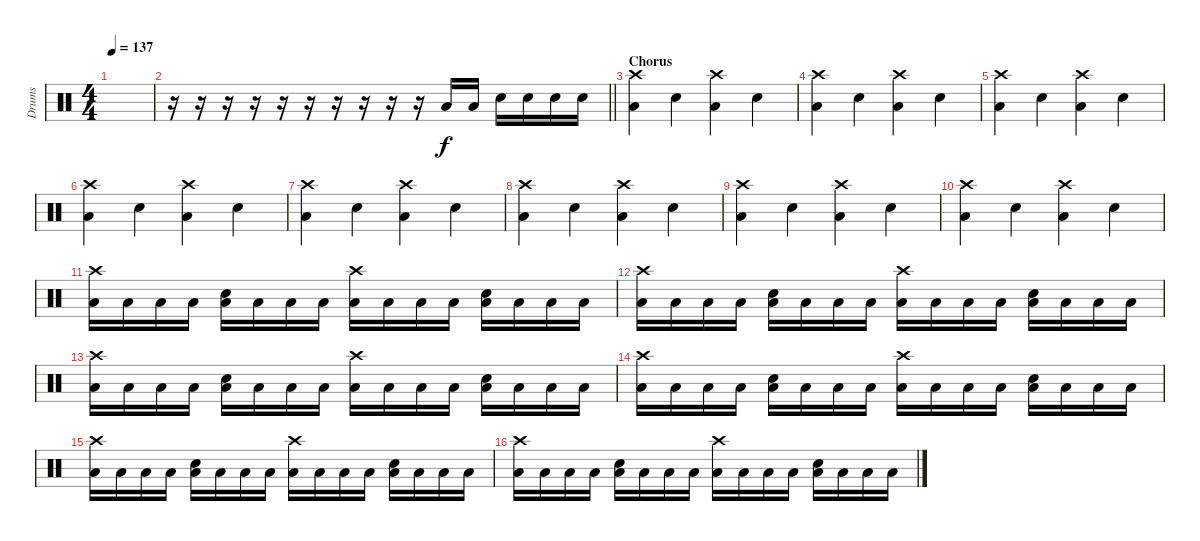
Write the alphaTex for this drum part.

\track ("Drums" "Drums") {instrument percussion}
\staff {score}
\articulation defaults
\ts (4 4)
\tempo 137
\clef neutral
\ks c
|
\barLineRight lightlight
r.16 r.16 r.16 r.16 r.16 r.16 r.16 r.16 r.16 r.16 "Low Floor Tom (hit)".16 "Low Floor Tom (hit)".16 "Electric Snare (hit)".16 "Electric Snare (hit)".16 "Electric Snare (hit)".16 "Electric Snare (hit)".16 |
\section ("" "Chorus")
("Crash high (hit)" "Low Floor Tom (hit)").4 "Electric Snare (hit)".4 ("Crash high (hit)" "Low Floor Tom (hit)").4 "Electric Snare (hit)".4 |
("Crash high (hit)" "Low Floor Tom (hit)").4 "Electric Snare (hit)".4 ("Crash high (hit)" "Low Floor Tom (hit)").4 "Electric Snare (hit)".4 |
("Crash high (hit)" "Low Floor Tom (hit)").4 "Electric Snare (hit)".4 ("Crash high (hit)" "Low Floor Tom (hit)").4 "Electric Snare (hit)".4 |
("Crash high (hit)" "Low Floor Tom (hit)").4 "Electric Snare (hit)".4 ("Crash high (hit)" "Low Floor Tom (hit)").4 "Electric Snare (hit)".4 |
("Crash high (hit)" "Low Floor Tom (hit)").4 "Electric Snare (hit)".4 ("Crash high (hit)" "Low Floor Tom (hit)").4 "Electric Snare (hit)".4 |
("Crash high (hit)" "Low Floor Tom (hit)").4 "Electric Snare (hit)".4 ("Crash high (hit)" "Low Floor Tom (hit)").4 "Electric Snare (hit)".4 |
("Crash high (hit)" "Low Floor Tom (hit)").4 "Electric Snare (hit)".4 ("Crash high (hit)" "Low Floor Tom (hit)").4 "Electric Snare (hit)".4 |
("Crash high (hit)" "Low Floor Tom (hit)").4 "Electric Snare (hit)".4 ("Crash high (hit)" "Low Floor Tom (hit)").4 "Electric Snare (hit)".4 |
("Crash high (hit)" "Low Floor Tom (hit)").16 "Low Floor Tom (hit)".16 "Low Floor Tom (hit)".16 "Low Floor Tom (hit)".16 ("Electric Snare (hit)" "Low Floor Tom (hit)").16 "Low Floor Tom (hit)".16 "Low Floor Tom (hit)".16 "Low Floor Tom (hit)".16 ("Crash high (hit)" "Low Floor Tom (hit)").16 "Low Floor Tom (hit)".16 "Low Floor Tom (hit)".16 "Low Floor Tom (hit)".16 ("Electric Snare (hit)" "Low Floor Tom (hit)").16 "Low Floor Tom (hit)".16 "Low Floor Tom (hit)".16 "Low Floor Tom (hit)".16 |
("Crash high (hit)" "Low Floor Tom (hit)").16 "Low Floor Tom (hit)".16 "Low Floor Tom (hit)".16 "Low Floor Tom (hit)".16 ("Electric Snare (hit)" "Low Floor Tom (hit)").16 "Low Floor Tom (hit)".16 "Low Floor Tom (hit)".16 "Low Floor Tom (hit)".16 ("Crash high (hit)" "Low Floor Tom (hit)").16 "Low Floor Tom (hit)".16 "Low Floor Tom (hit)".16 "Low Floor Tom (hit)".16 ("Electric Snare (hit)" "Low Floor Tom (hit)").16 "Low Floor Tom (hit)".16 "Low Floor Tom (hit)".16 "Low Floor Tom (hit)".16 |
("Crash high (hit)" "Low Floor Tom (hit)").16 "Low Floor Tom (hit)".16 "Low Floor Tom (hit)".16 "Low Floor Tom (hit)".16 ("Electric Snare (hit)" "Low Floor Tom (hit)").16 "Low Floor Tom (hit)".16 "Low Floor Tom (hit)".16 "Low Floor Tom (hit)".16 ("Crash high (hit)" "Low Floor Tom (hit)").16 "Low Floor Tom (hit)".16 "Low Floor Tom (hit)".16 "Low Floor Tom (hit)".16 ("Electric Snare (hit)" "Low Floor Tom (hit)").16 "Low Floor Tom (hit)".16 "Low Floor Tom (hit)".16 "Low Floor Tom (hit)".16 |
("Crash high (hit)" "Low Floor Tom (hit)").16 "Low Floor Tom (hit)".16 "Low Floor Tom (hit)".16 "Low Floor Tom (hit)".16 ("Electric Snare (hit)" "Low Floor Tom (hit)").16 "Low Floor Tom (hit)".16 "Low Floor Tom (hit)".16 "Low Floor Tom (hit)".16 ("Crash high (hit)" "Low Floor Tom (hit)").16 "Low Floor Tom (hit)".16 "Low Floor Tom (hit)".16 "Low Floor Tom (hit)".16 ("Electric Snare (hit)" "Low Floor Tom (hit)").16 "Low Floor Tom (hit)".16 "Low Floor Tom (hit)".16 "Low Floor Tom (hit)".16 |
("Crash high (hit)" "Low Floor Tom (hit)").16 "Low Floor Tom (hit)".16 "Low Floor Tom (hit)".16 "Low Floor Tom (hit)".16 ("Electric Snare (hit)" "Low Floor Tom (hit)").16 "Low Floor Tom (hit)".16 "Low Floor Tom (hit)".16 "Low Floor Tom (hit)".16 ("Crash high (hit)" "Low Floor Tom (hit)").16 "Low Floor Tom (hit)".16 "Low Floor Tom (hit)".16 "Low Floor Tom (hit)".16 ("Electric Snare (hit)" "Low Floor Tom (hit)").16 "Low Floor Tom (hit)".16 "Low Floor Tom (hit)".16 "Low Floor Tom (hit)".16 |
("Crash high (hit)" "Low Floor Tom (hit)").16 "Low Floor Tom (hit)".16 "Low Floor Tom (hit)".16 "Low Floor Tom (hit)".16 ("Electric Snare (hit)" "Low Floor Tom (hit)").16 "Low Floor Tom (hit)".16 "Low Floor Tom (hit)".16 "Low Floor Tom (hit)".16 ("Crash high (hit)" "Low Floor Tom (hit)").16 "Low Floor Tom (hit)".16 "Low Floor Tom (hit)".16 "Low Floor Tom (hit)".16 ("Electric Snare (hit)" "Low Floor Tom (hit)").16 "Low Floor Tom (hit)".16 "Low Floor Tom (hit)".16 "Low Floor Tom (hit)".16
